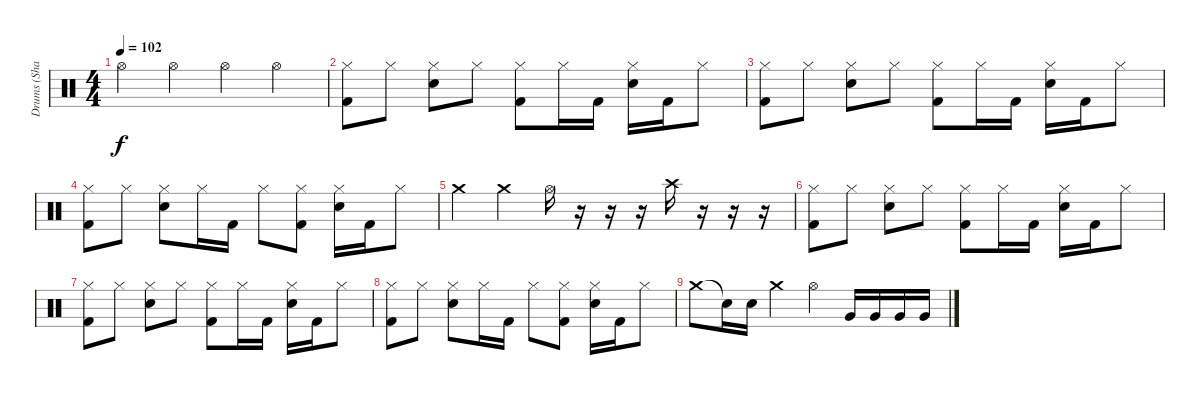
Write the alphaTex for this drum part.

\track ("Drums (Shannon Larkin)" "Drums (Sha") {instrument percussion}
\staff {score}
\articulation defaults
\ts (4 4)
\tempo 102
\clef neutral
\ks c "Hi-Hat (open)".4{dy f} "Hi-Hat (open)".4 "Hi-Hat (open)".4 "Hi-Hat (open)".4
|
("Hi-Hat (closed)" "Kick (hit) 2").8 "Hi-Hat (closed)".8 ("Hi-Hat (closed)" "Electric Snare (hit)").8 "Hi-Hat (closed)".8 ("Hi-Hat (closed)" "Kick (hit) 2").8 "Hi-Hat (closed)".16 "Kick (hit) 2".16 ("Hi-Hat (closed)" "Electric Snare (hit)").16 "Kick (hit) 2".16 "Hi-Hat (closed)".8 |
("Hi-Hat (closed)" "Kick (hit) 2").8 "Hi-Hat (closed)".8 ("Hi-Hat (closed)" "Electric Snare (hit)").8 "Hi-Hat (closed)".8 ("Hi-Hat (closed)" "Kick (hit) 2").8 "Hi-Hat (closed)".16 "Kick (hit) 2".16 ("Hi-Hat (closed)" "Electric Snare (hit)").16 "Kick (hit) 2".16 "Hi-Hat (closed)".8 |
("Hi-Hat (closed)" "Kick (hit) 2").8 "Hi-Hat (closed)".8 ("Hi-Hat (closed)" "Electric Snare (hit)").8 "Hi-Hat (closed)".16 "Kick (hit) 2".16 "Hi-Hat (closed)".8 ("Hi-Hat (closed)" "Kick (hit) 2").8 ("Hi-Hat (closed)" "Electric Snare (hit)").16 "Kick (hit) 2".16 "Hi-Hat (closed)".8 |
"Crash medium (hit)".4 "Crash medium (hit)".4 "Hi-Hat (open)".16 r.16 r.16 r.16 "Crash high (hit)".16 r.16 r.16 r.16 |
("Hi-Hat (closed)" "Kick (hit) 2").8 "Hi-Hat (closed)".8 ("Hi-Hat (closed)" "Electric Snare (hit)").8 "Hi-Hat (closed)".8 ("Hi-Hat (closed)" "Kick (hit) 2").8 "Hi-Hat (closed)".16 "Kick (hit) 2".16 ("Hi-Hat (closed)" "Electric Snare (hit)").16 "Kick (hit) 2".16 "Hi-Hat (closed)".8 |
("Hi-Hat (closed)" "Kick (hit) 2").8 "Hi-Hat (closed)".8 ("Hi-Hat (closed)" "Electric Snare (hit)").8 "Hi-Hat (closed)".8 ("Hi-Hat (closed)" "Kick (hit) 2").8 "Hi-Hat (closed)".16 "Kick (hit) 2".16 ("Hi-Hat (closed)" "Electric Snare (hit)").16 "Kick (hit) 2".16 "Hi-Hat (closed)".8 |
("Hi-Hat (closed)" "Kick (hit) 2").8 "Hi-Hat (closed)".8 ("Hi-Hat (closed)" "Electric Snare (hit)").8 "Hi-Hat (closed)".16 "Kick (hit) 2".16 "Hi-Hat (closed)".8 ("Hi-Hat (closed)" "Kick (hit) 2").8 ("Hi-Hat (closed)" "Electric Snare (hit)").16 "Kick (hit) 2".16 "Hi-Hat (closed)".8 |
"Crash medium (hit)".8 "Snare (hit)"{t}.16 "Electric Snare (hit)".16 "Crash medium (hit)".4 "Hi-Hat (open)".4 "Very Low Tom (hit)".16 "Very Low Tom (hit)".16 "Very Low Tom (hit)".16 "Very Low Tom (hit)".16
